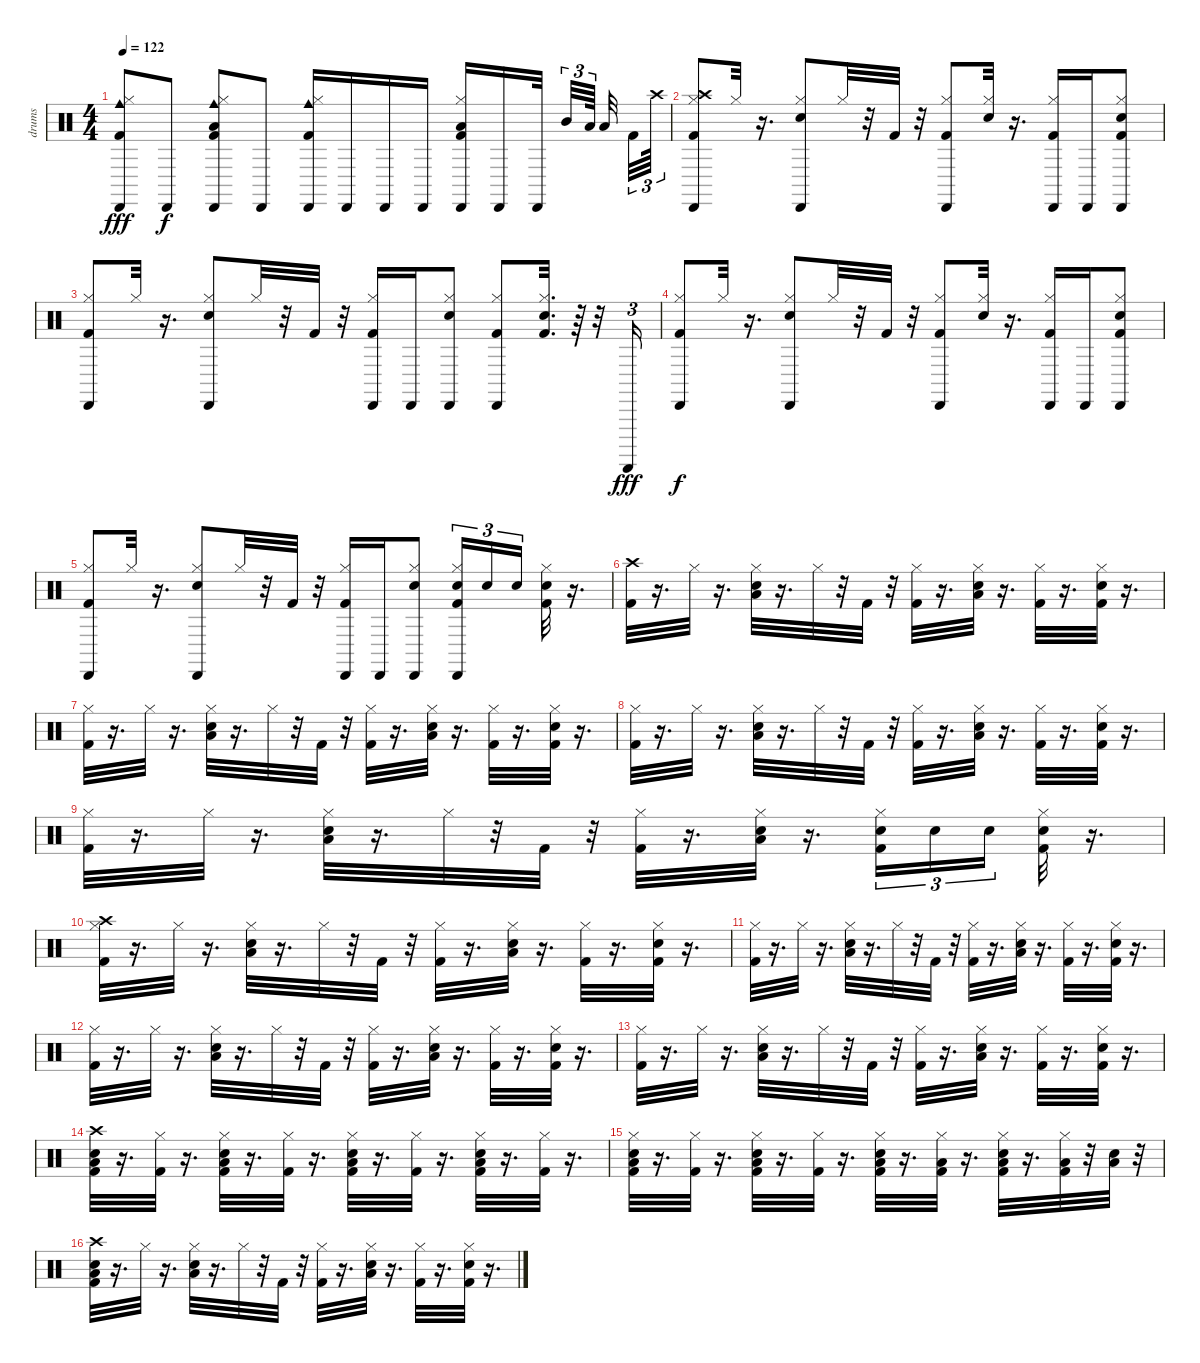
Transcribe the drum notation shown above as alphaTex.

\track ("drums" "drums") {instrument percussion}
\staff {score}
\articulation defaults
\ts (4 4)
\tempo 122
\clef neutral
\ks c
("Cabasa (hit)" "Hi-Hat (closed)" "Kick (hit) 2" "Cowbell medium (hit)").8{dy fff} "Cabasa (hit)".8{dy f} ("Cabasa (hit)" "Hi-Hat (closed)" "Kick (hit) 2" "Low Floor Tom (hit)" "Cowbell medium (hit)").8 "Cabasa (hit)".8 ("Cabasa (hit)" "Hi-Hat (closed)" "Cowbell medium (hit)" "Kick (hit) 2").16 "Cabasa (hit)".16 "Cabasa (hit)".16 "Cabasa (hit)".16 ("Hi-Hat (closed)" "Low Floor Tom (hit)" "Kick (hit) 2" "Cabasa (hit)").16 "Cabasa (hit)".16 "Cabasa (hit)".32 "Mid Tom (hit)".32{tu (3 2)} "Low Tom (hit)".64{tu (3 2)} "Low Floor Tom (hit)".32 "Kick (hit) 2".32{tu (3 2)} "Crash high (hit)".64{tu (3 2)} |
("Kick (hit) 2" "Crash high (hit)" "Hi-Hat (closed)" "Cabasa (hit)").8 "Hi-Hat (closed)".32 r.16{d} ("Hi-Hat (closed)" "Snare (hit) 2" "Cabasa (hit)").8 "Hi-Hat (closed)".32 r.32 "Kick (hit) 2".32 r.32 ("Kick (hit) 2" "Cabasa (hit)" "Hi-Hat (closed)").8 ("Snare (hit) 2" "Hi-Hat (closed)").32 r.16{d} ("Cabasa (hit)" "Hi-Hat (closed)" "Kick (hit) 2").16 "Cabasa (hit)".16 ("Snare (hit) 2" "Kick (hit) 2" "Hi-Hat (closed)" "Cabasa (hit)").8 |
("Cabasa (hit)" "Kick (hit) 2" "Hi-Hat (closed)").8 "Hi-Hat (closed)".32 r.16{d} ("Cabasa (hit)" "Hi-Hat (closed)" "Snare (hit) 2").8 "Hi-Hat (closed)".32 r.32 "Kick (hit) 2".32 r.32 ("Cabasa (hit)" "Hi-Hat (closed)" "Kick (hit) 2").16 "Cabasa (hit)".16 ("Cabasa (hit)" "Hi-Hat (closed)" "Snare (hit) 2").8 ("Cabasa (hit)" "Hi-Hat (closed)" "Kick (hit) 2").8 ("Snare (hit) 2" "Hi-Hat (closed)" "Kick (hit) 2").32{d} r.64 r.32 "Guiro (scrap-return)".16{tu (3 2) dy fff} |
("Cabasa (hit)" "Kick (hit) 2" "Hi-Hat (closed)").8{dy f} "Hi-Hat (closed)".32 r.16{d} ("Cabasa (hit)" "Hi-Hat (closed)" "Snare (hit) 2").8 "Hi-Hat (closed)".32 r.32 "Kick (hit) 2".32 r.32 ("Cabasa (hit)" "Hi-Hat (closed)" "Kick (hit) 2").8 ("Hi-Hat (closed)" "Snare (hit) 2").32 r.16{d} ("Cabasa (hit)" "Hi-Hat (closed)" "Kick (hit) 2").16 "Cabasa (hit)".16 ("Cabasa (hit)" "Snare (hit) 2" "Hi-Hat (closed)" "Kick (hit) 2").8 |
("Cabasa (hit)" "Kick (hit) 2" "Hi-Hat (closed)").8 "Hi-Hat (closed)".32 r.16{d} ("Cabasa (hit)" "Hi-Hat (closed)" "Snare (hit) 2").8 "Hi-Hat (closed)".32 r.32 "Kick (hit) 2".32 r.32 ("Cabasa (hit)" "Hi-Hat (closed)" "Kick (hit) 2").16 "Cabasa (hit)".16 ("Cabasa (hit)" "Hi-Hat (closed)" "Snare (hit) 2").8 ("Cabasa (hit)" "Snare (hit) 2" "Hi-Hat (closed)" "Kick (hit) 2").16{tu (3 2)} "Snare (hit) 2".16{tu (3 2)} "Snare (hit) 2".16{tu (3 2)} ("Snare (hit) 2" "Hi-Hat (closed)" "Kick (hit) 2").32 r.16{d} |
("Kick (hit) 2" "Crash high (hit)").32 r.16{d} "Hi-Hat (closed)".32 r.16{d} ("Low Floor Tom (hit)" "Hi-Hat (closed)" "Snare (hit) 2").32 r.16{d} "Hi-Hat (closed)".32 r.32 "Kick (hit) 2".32 r.32 ("Hi-Hat (closed)" "Kick (hit) 2").32 r.16{d} ("Low Floor Tom (hit)" "Hi-Hat (closed)" "Snare (hit) 2").32 r.16{d} ("Hi-Hat (closed)" "Kick (hit) 2").32 r.16{d} ("Snare (hit) 2" "Hi-Hat (closed)" "Kick (hit) 2").32 r.16{d} |
("Kick (hit) 2" "Hi-Hat (closed)").32 r.16{d} "Hi-Hat (closed)".32 r.16{d} ("Low Floor Tom (hit)" "Hi-Hat (closed)" "Snare (hit) 2").32 r.16{d} "Hi-Hat (closed)".32 r.32 "Kick (hit) 2".32 r.32 ("Hi-Hat (closed)" "Kick (hit) 2").32 r.16{d} ("Low Floor Tom (hit)" "Hi-Hat (closed)" "Snare (hit) 2").32 r.16{d} ("Hi-Hat (closed)" "Kick (hit) 2").32 r.16{d} ("Snare (hit) 2" "Hi-Hat (closed)" "Kick (hit) 2").32 r.16{d} |
("Kick (hit) 2" "Hi-Hat (closed)").32 r.16{d} "Hi-Hat (closed)".32 r.16{d} ("Low Floor Tom (hit)" "Hi-Hat (closed)" "Snare (hit) 2").32 r.16{d} "Hi-Hat (closed)".32 r.32 "Kick (hit) 2".32 r.32 ("Hi-Hat (closed)" "Kick (hit) 2").32 r.16{d} ("Low Floor Tom (hit)" "Hi-Hat (closed)" "Snare (hit) 2").32 r.16{d} ("Hi-Hat (closed)" "Kick (hit) 2").32 r.16{d} ("Snare (hit) 2" "Hi-Hat (closed)" "Kick (hit) 2").32 r.16{d} |
("Kick (hit) 2" "Hi-Hat (closed)").32 r.16{d} "Hi-Hat (closed)".32 r.16{d} ("Low Floor Tom (hit)" "Hi-Hat (closed)" "Snare (hit) 2").32 r.16{d} "Hi-Hat (closed)".32 r.32 "Kick (hit) 2".32 r.32 ("Hi-Hat (closed)" "Kick (hit) 2").32 r.16{d} ("Low Floor Tom (hit)" "Hi-Hat (closed)" "Snare (hit) 2").32 r.16{d} ("Snare (hit) 2" "Hi-Hat (closed)" "Kick (hit) 2").16{tu (3 2)} "Snare (hit) 2".16{tu (3 2)} "Snare (hit) 2".16{tu (3 2)} ("Snare (hit) 2" "Hi-Hat (closed)" "Kick (hit) 2").32 r.16{d} |
("Crash high (hit)" "Kick (hit) 2" "Hi-Hat (closed)").32 r.16{d} "Hi-Hat (closed)".32 r.16{d} ("Low Floor Tom (hit)" "Hi-Hat (closed)" "Snare (hit) 2").32 r.16{d} "Hi-Hat (closed)".32 r.32 "Kick (hit) 2".32 r.32 ("Hi-Hat (closed)" "Kick (hit) 2").32 r.16{d} ("Low Floor Tom (hit)" "Hi-Hat (closed)" "Snare (hit) 2").32 r.16{d} ("Hi-Hat (closed)" "Kick (hit) 2").32 r.16{d} ("Snare (hit) 2" "Hi-Hat (closed)" "Kick (hit) 2").32 r.16{d} |
("Kick (hit) 2" "Hi-Hat (closed)").32 r.16{d} "Hi-Hat (closed)".32 r.16{d} ("Low Floor Tom (hit)" "Hi-Hat (closed)" "Snare (hit) 2").32 r.16{d} "Hi-Hat (closed)".32 r.32 "Kick (hit) 2".32 r.32 ("Hi-Hat (closed)" "Kick (hit) 2").32 r.16{d} ("Low Floor Tom (hit)" "Hi-Hat (closed)" "Snare (hit) 2").32 r.16{d} ("Hi-Hat (closed)" "Kick (hit) 2").32 r.16{d} ("Snare (hit) 2" "Hi-Hat (closed)" "Kick (hit) 2").32 r.16{d} |
("Kick (hit) 2" "Hi-Hat (closed)").32 r.16{d} "Hi-Hat (closed)".32 r.16{d} ("Hi-Hat (closed)" "Snare (hit) 2" "Low Floor Tom (hit)").32 r.16{d} "Hi-Hat (closed)".32 r.32 "Kick (hit) 2".32 r.32 ("Hi-Hat (closed)" "Kick (hit) 2").32 r.16{d} ("Hi-Hat (closed)" "Snare (hit) 2" "Low Floor Tom (hit)").32 r.16{d} ("Hi-Hat (closed)" "Kick (hit) 2").32 r.16{d} ("Snare (hit) 2" "Hi-Hat (closed)" "Kick (hit) 2").32 r.16{d} |
("Kick (hit) 2" "Hi-Hat (closed)").32 r.16{d} "Hi-Hat (closed)".32 r.16{d} ("Low Floor Tom (hit)" "Hi-Hat (closed)" "Snare (hit) 2").32 r.16{d} "Hi-Hat (closed)".32 r.32 "Kick (hit) 2".32 r.32 ("Hi-Hat (closed)" "Kick (hit) 2").32 r.16{d} ("Low Floor Tom (hit)" "Hi-Hat (closed)" "Snare (hit) 2").32 r.16{d} ("Hi-Hat (closed)" "Kick (hit) 2").32 r.16{d} ("Snare (hit) 2" "Hi-Hat (closed)" "Kick (hit) 2").32 r.16{d} |
("Low Floor Tom (hit)" "Crash high (hit)" "Snare (hit) 2" "Kick (hit) 2").32 r.16{d} ("Kick (hit) 2" "Hi-Hat (closed)").32 r.16{d} ("Low Floor Tom (hit)" "Hi-Hat (closed)" "Kick (hit) 2" "Snare (hit) 2").32 r.16{d} ("Kick (hit) 2" "Hi-Hat (closed)").32 r.16{d} ("Kick (hit) 2" "Snare (hit) 2" "Hi-Hat (closed)" "Low Floor Tom (hit)").32 r.16{d} ("Kick (hit) 2" "Hi-Hat (closed)").32 r.16{d} ("Low Floor Tom (hit)" "Kick (hit) 2" "Hi-Hat (closed)" "Snare (hit) 2").32 r.16{d} ("Kick (hit) 2" "Hi-Hat (closed)").32 r.16{d} |
("Low Floor Tom (hit)" "Snare (hit) 2" "Hi-Hat (closed)" "Kick (hit) 2").32 r.16{d} ("Kick (hit) 2" "Hi-Hat (closed)").32 r.16{d} ("Low Floor Tom (hit)" "Snare (hit) 2" "Kick (hit) 2" "Hi-Hat (closed)").32 r.16{d} ("Hi-Hat (closed)" "Kick (hit) 2").32 r.16{d} ("Low Floor Tom (hit)" "Snare (hit) 2" "Hi-Hat (closed)" "Kick (hit) 2").32 r.16{d} ("Low Floor Tom (hit)" "Kick (hit) 2" "Hi-Hat (closed)").32 r.16{d} ("Low Floor Tom (hit)" "Kick (hit) 2" "Hi-Hat (closed)" "Snare (hit) 2").32 r.16{d} ("Low Floor Tom (hit)" "Kick (hit) 2" "Hi-Hat (closed)").32 r.32 ("Snare (hit) 2" "Low Floor Tom (hit)").32 r.32 |
("Low Floor Tom (hit)" "Snare (hit) 2" "Kick (hit) 2" "Crash high (hit)").32 r.16{d} "Hi-Hat (closed)".32 r.16{d} ("Low Floor Tom (hit)" "Hi-Hat (closed)" "Snare (hit) 2").32 r.16{d} "Hi-Hat (closed)".32 r.32 "Kick (hit) 2".32 r.32 ("Hi-Hat (closed)" "Kick (hit) 2").32 r.16{d} ("Low Floor Tom (hit)" "Hi-Hat (closed)" "Snare (hit) 2").32 r.16{d} ("Hi-Hat (closed)" "Kick (hit) 2").32 r.16{d} ("Snare (hit) 2" "Hi-Hat (closed)" "Kick (hit) 2").32 r.16{d}
